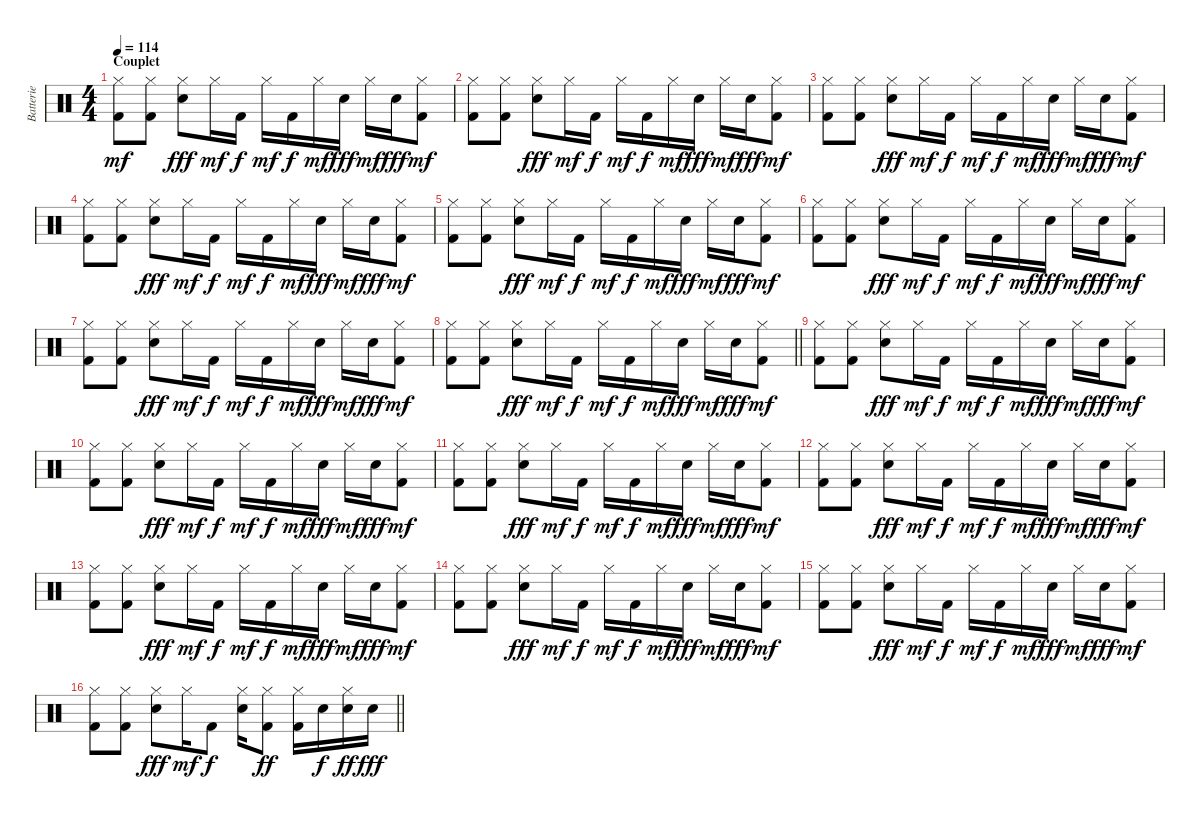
\track ("Batterie" "Batterie") {instrument percussion}
\staff {score}
\articulation defaults
\ts (4 4)
\section ("" "Couplet")
\tempo 114
\clef neutral
\ks c
("Hi-Hat (closed)" "Kick (hit) 2").8{dy mf} ("Hi-Hat (closed)" "Kick (hit) 2").8 ("Hi-Hat (closed)" "Snare (hit) 2").8{dy fff} "Hi-Hat (closed)".16{dy mf} "Kick (hit) 2".16{dy f} "Hi-Hat (closed)".16{dy mf} "Kick (hit) 2".16{dy f} "Hi-Hat (closed)".16{dy mf} "Snare (hit) 2".16{dy fff} "Hi-Hat (closed)".16{dy mf} "Snare (hit) 2".16{dy fff} ("Hi-Hat (closed)" "Kick (hit) 2").8{dy mf} |
("Hi-Hat (closed)" "Kick (hit) 2").8 ("Hi-Hat (closed)" "Kick (hit) 2").8 ("Hi-Hat (closed)" "Snare (hit) 2").8{dy fff} "Hi-Hat (closed)".16{dy mf} "Kick (hit) 2".16{dy f} "Hi-Hat (closed)".16{dy mf} "Kick (hit) 2".16{dy f} "Hi-Hat (closed)".16{dy mf} "Snare (hit) 2".16{dy fff} "Hi-Hat (closed)".16{dy mf} "Snare (hit) 2".16{dy fff} ("Hi-Hat (closed)" "Kick (hit) 2").8{dy mf} |
("Hi-Hat (closed)" "Kick (hit) 2").8 ("Hi-Hat (closed)" "Kick (hit) 2").8 ("Hi-Hat (closed)" "Snare (hit) 2").8{dy fff} "Hi-Hat (closed)".16{dy mf} "Kick (hit) 2".16{dy f} "Hi-Hat (closed)".16{dy mf} "Kick (hit) 2".16{dy f} "Hi-Hat (closed)".16{dy mf} "Snare (hit) 2".16{dy fff} "Hi-Hat (closed)".16{dy mf} "Snare (hit) 2".16{dy fff} ("Hi-Hat (closed)" "Kick (hit) 2").8{dy mf} |
("Hi-Hat (closed)" "Kick (hit) 2").8 ("Hi-Hat (closed)" "Kick (hit) 2").8 ("Hi-Hat (closed)" "Snare (hit) 2").8{dy fff} "Hi-Hat (closed)".16{dy mf} "Kick (hit) 2".16{dy f} "Hi-Hat (closed)".16{dy mf} "Kick (hit) 2".16{dy f} "Hi-Hat (closed)".16{dy mf} "Snare (hit) 2".16{dy fff} "Hi-Hat (closed)".16{dy mf} "Snare (hit) 2".16{dy fff} ("Hi-Hat (closed)" "Kick (hit) 2").8{dy mf} |
("Hi-Hat (closed)" "Kick (hit) 2").8 ("Hi-Hat (closed)" "Kick (hit) 2").8 ("Hi-Hat (closed)" "Snare (hit) 2").8{dy fff} "Hi-Hat (closed)".16{dy mf} "Kick (hit) 2".16{dy f} "Hi-Hat (closed)".16{dy mf} "Kick (hit) 2".16{dy f} "Hi-Hat (closed)".16{dy mf} "Snare (hit) 2".16{dy fff} "Hi-Hat (closed)".16{dy mf} "Snare (hit) 2".16{dy fff} ("Hi-Hat (closed)" "Kick (hit) 2").8{dy mf} |
("Hi-Hat (closed)" "Kick (hit) 2").8 ("Hi-Hat (closed)" "Kick (hit) 2").8 ("Hi-Hat (closed)" "Snare (hit) 2").8{dy fff} "Hi-Hat (closed)".16{dy mf} "Kick (hit) 2".16{dy f} "Hi-Hat (closed)".16{dy mf} "Kick (hit) 2".16{dy f} "Hi-Hat (closed)".16{dy mf} "Snare (hit) 2".16{dy fff} "Hi-Hat (closed)".16{dy mf} "Snare (hit) 2".16{dy fff} ("Hi-Hat (closed)" "Kick (hit) 2").8{dy mf} |
("Hi-Hat (closed)" "Kick (hit) 2").8 ("Hi-Hat (closed)" "Kick (hit) 2").8 ("Hi-Hat (closed)" "Snare (hit) 2").8{dy fff} "Hi-Hat (closed)".16{dy mf} "Kick (hit) 2".16{dy f} "Hi-Hat (closed)".16{dy mf} "Kick (hit) 2".16{dy f} "Hi-Hat (closed)".16{dy mf} "Snare (hit) 2".16{dy fff} "Hi-Hat (closed)".16{dy mf} "Snare (hit) 2".16{dy fff} ("Hi-Hat (closed)" "Kick (hit) 2").8{dy mf} |
\barLineRight lightlight
("Hi-Hat (closed)" "Kick (hit) 2").8 ("Hi-Hat (closed)" "Kick (hit) 2").8 ("Hi-Hat (closed)" "Snare (hit) 2").8{dy fff} "Hi-Hat (closed)".16{dy mf} "Kick (hit) 2".16{dy f} "Hi-Hat (closed)".16{dy mf} "Kick (hit) 2".16{dy f} "Hi-Hat (closed)".16{dy mf} "Snare (hit) 2".16{dy fff} "Hi-Hat (closed)".16{dy mf} "Snare (hit) 2".16{dy fff} ("Hi-Hat (closed)" "Kick (hit) 2").8{dy mf} |
("Hi-Hat (closed)" "Kick (hit) 2").8 ("Hi-Hat (closed)" "Kick (hit) 2").8 ("Hi-Hat (closed)" "Snare (hit) 2").8{dy fff} "Hi-Hat (closed)".16{dy mf} "Kick (hit) 2".16{dy f} "Hi-Hat (closed)".16{dy mf} "Kick (hit) 2".16{dy f} "Hi-Hat (closed)".16{dy mf} "Snare (hit) 2".16{dy fff} "Hi-Hat (closed)".16{dy mf} "Snare (hit) 2".16{dy fff} ("Hi-Hat (closed)" "Kick (hit) 2").8{dy mf} |
("Hi-Hat (closed)" "Kick (hit) 2").8 ("Hi-Hat (closed)" "Kick (hit) 2").8 ("Hi-Hat (closed)" "Snare (hit) 2").8{dy fff} "Hi-Hat (closed)".16{dy mf} "Kick (hit) 2".16{dy f} "Hi-Hat (closed)".16{dy mf} "Kick (hit) 2".16{dy f} "Hi-Hat (closed)".16{dy mf} "Snare (hit) 2".16{dy fff} "Hi-Hat (closed)".16{dy mf} "Snare (hit) 2".16{dy fff} ("Hi-Hat (closed)" "Kick (hit) 2").8{dy mf} |
("Hi-Hat (closed)" "Kick (hit) 2").8 ("Hi-Hat (closed)" "Kick (hit) 2").8 ("Hi-Hat (closed)" "Snare (hit) 2").8{dy fff} "Hi-Hat (closed)".16{dy mf} "Kick (hit) 2".16{dy f} "Hi-Hat (closed)".16{dy mf} "Kick (hit) 2".16{dy f} "Hi-Hat (closed)".16{dy mf} "Snare (hit) 2".16{dy fff} "Hi-Hat (closed)".16{dy mf} "Snare (hit) 2".16{dy fff} ("Hi-Hat (closed)" "Kick (hit) 2").8{dy mf} |
("Hi-Hat (closed)" "Kick (hit) 2").8 ("Hi-Hat (closed)" "Kick (hit) 2").8 ("Hi-Hat (closed)" "Snare (hit) 2").8{dy fff} "Hi-Hat (closed)".16{dy mf} "Kick (hit) 2".16{dy f} "Hi-Hat (closed)".16{dy mf} "Kick (hit) 2".16{dy f} "Hi-Hat (closed)".16{dy mf} "Snare (hit) 2".16{dy fff} "Hi-Hat (closed)".16{dy mf} "Snare (hit) 2".16{dy fff} ("Hi-Hat (closed)" "Kick (hit) 2").8{dy mf} |
("Hi-Hat (closed)" "Kick (hit) 2").8 ("Hi-Hat (closed)" "Kick (hit) 2").8 ("Hi-Hat (closed)" "Snare (hit) 2").8{dy fff} "Hi-Hat (closed)".16{dy mf} "Kick (hit) 2".16{dy f} "Hi-Hat (closed)".16{dy mf} "Kick (hit) 2".16{dy f} "Hi-Hat (closed)".16{dy mf} "Snare (hit) 2".16{dy fff} "Hi-Hat (closed)".16{dy mf} "Snare (hit) 2".16{dy fff} ("Hi-Hat (closed)" "Kick (hit) 2").8{dy mf} |
("Hi-Hat (closed)" "Kick (hit) 2").8 ("Hi-Hat (closed)" "Kick (hit) 2").8 ("Hi-Hat (closed)" "Snare (hit) 2").8{dy fff} "Hi-Hat (closed)".16{dy mf} "Kick (hit) 2".16{dy f} "Hi-Hat (closed)".16{dy mf} "Kick (hit) 2".16{dy f} "Hi-Hat (closed)".16{dy mf} "Snare (hit) 2".16{dy fff} "Hi-Hat (closed)".16{dy mf} "Snare (hit) 2".16{dy fff} ("Hi-Hat (closed)" "Kick (hit) 2").8{dy mf} |
("Hi-Hat (closed)" "Kick (hit) 2").8 ("Hi-Hat (closed)" "Kick (hit) 2").8 ("Hi-Hat (closed)" "Snare (hit) 2").8{dy fff} "Hi-Hat (closed)".16{dy mf} "Kick (hit) 2".16{dy f} "Hi-Hat (closed)".16{dy mf} "Kick (hit) 2".16{dy f} "Hi-Hat (closed)".16{dy mf} "Snare (hit) 2".16{dy fff} "Hi-Hat (closed)".16{dy mf} "Snare (hit) 2".16{dy fff} ("Hi-Hat (closed)" "Kick (hit) 2").8{dy mf} |
\barLineRight lightlight
("Hi-Hat (closed)" "Kick (hit) 2").8 ("Hi-Hat (closed)" "Kick (hit) 2").8 ("Hi-Hat (closed)" "Snare (hit) 2").8{dy fff} "Hi-Hat (closed)".16{dy mf} "Kick (hit) 2".8{dy f} ("Hi-Hat (closed)" "Snare (hit) 2").16 ("Hi-Hat (closed)" "Kick (hit) 2").8{dy ff} ("Hi-Hat (closed)" "Kick (hit) 2").16 "Snare (hit) 2".16{dy f} ("Hi-Hat (closed)" "Snare (hit) 2").16{dy ff} "Snare (hit) 2".16{dy fff}
